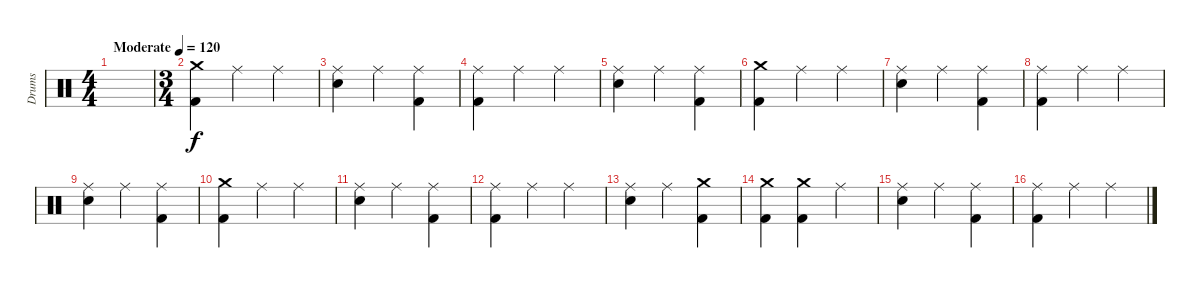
\track ("Drums" "Drums") {instrument percussion}
\staff {score}
\articulation defaults
\ts (4 4)
\tempo (120 "Moderate")
\clef neutral
\ks c
|
\ts (3 4)
("Crash medium (hit)" "Kick (hit) 2").4 "Ride (middle)".4 "Ride (middle)".4 |
("Ride (middle)" "Electric Snare (hit)").4 "Ride (middle)".4 ("Ride (middle)" "Kick (hit) 2").4 |
("Ride (middle)" "Kick (hit) 2").4 "Ride (middle)".4 "Ride (middle)".4 |
("Ride (middle)" "Electric Snare (hit)").4 "Ride (middle)".4 ("Ride (middle)" "Kick (hit) 2").4 |
("Crash medium (hit)" "Kick (hit) 2").4 "Ride (middle)".4 "Ride (middle)".4 |
("Ride (middle)" "Electric Snare (hit)").4 "Ride (middle)".4 ("Ride (middle)" "Kick (hit) 2").4 |
("Ride (middle)" "Kick (hit) 2").4 "Ride (middle)".4 "Ride (middle)".4 |
("Ride (middle)" "Electric Snare (hit)").4 "Ride (middle)".4 ("Ride (middle)" "Kick (hit) 2").4 |
("Crash medium (hit)" "Kick (hit) 2").4 "Ride (middle)".4 "Ride (middle)".4 |
("Ride (middle)" "Electric Snare (hit)").4 "Ride (middle)".4 ("Ride (middle)" "Kick (hit) 2").4 |
("Ride (middle)" "Kick (hit) 2").4 "Ride (middle)".4 "Ride (middle)".4 |
("Ride (middle)" "Electric Snare (hit)").4 "Ride (middle)".4 ("Crash medium (hit)" "Kick (hit) 2").4 |
("Crash medium (hit)" "Kick (hit) 2").4 ("Crash medium (hit)" "Kick (hit) 2").4 "Ride (middle)".4 |
("Ride (middle)" "Electric Snare (hit)").4 "Ride (middle)".4 ("Ride (middle)" "Kick (hit) 2").4 |
("Ride (middle)" "Kick (hit) 2").4 "Ride (middle)".4 "Ride (middle)".4
